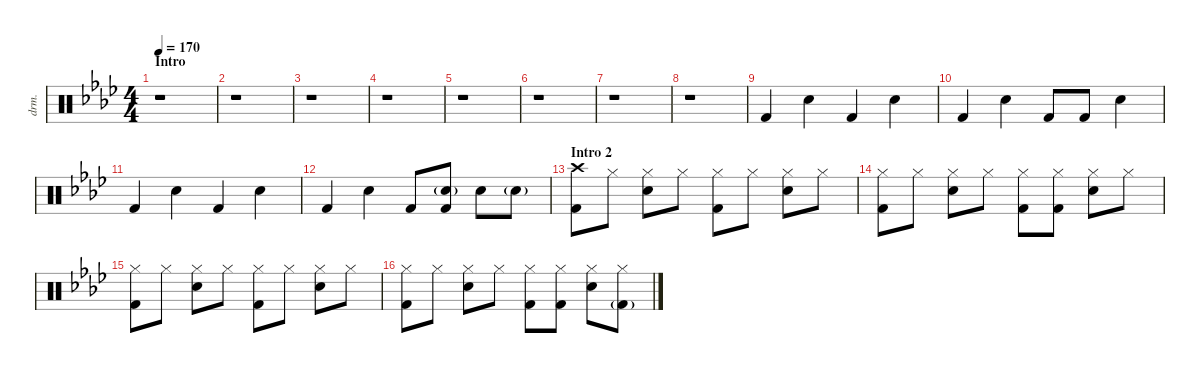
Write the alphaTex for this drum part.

\defaultSystemsLayout 4
\hideDynamics
\bracketExtendMode nobrackets
\otherSystemsTrackNameOrientation horizontal
\track ("Drumkit" "drm.") {instrument percussion}
\staff {score}
\articulation defaults
\ts (4 4)
\section ("" "Intro")
\tempo 170
\clef neutral
\ks fminor
r.1{dy mf beam Down} |
r.1{beam Down} |
r.1{beam Down} |
r.1{beam Down} |
r.1{beam Down} |
r.1{beam Down} |
r.1{beam Down} |
r.1{beam Down} |
"Kick (hit) 2"{acc forcenatural}.4{beam Up} "Snare (hit) 2"{acc forcenatural}.4{beam Down} "Kick (hit) 2"{acc forcenatural}.4{beam Up} "Snare (hit) 2"{acc forcenatural}.4{beam Down} |
"Kick (hit) 2"{acc forcenatural}.4{beam Up} "Snare (hit) 2"{acc forcenatural}.4{beam Down} "Kick (hit) 2"{acc forcenatural}.8{beam Up} "Kick (hit) 2"{acc forcenatural}.8{beam Up} "Snare (hit) 2"{acc forcenatural}.4{beam Down} |
"Kick (hit) 2"{acc forcenatural}.4{beam Up} "Snare (hit) 2"{acc forcenatural}.4{beam Down} "Kick (hit) 2"{acc forcenatural}.4{beam Up} "Snare (hit) 2"{acc forcenatural}.4{beam Down} |
"Kick (hit) 2"{acc forcenatural}.4{beam Up} "Snare (hit) 2"{acc forcenatural}.4{beam Down} "Kick (hit) 2"{acc forcenatural}.8{beam Up} ("Kick (hit) 2"{acc forcenatural} "Hand Clap (hit)"{g acc forcenatural}).8{beam Up} "Snare (hit) 2"{acc forcenatural}.8{beam Down} "Hand Clap (hit)"{g acc forcenatural}.8{beam Down} |
\section ("" "Intro 2")
("Kick (hit) 2"{acc forcenatural} "Crash high (hit)"{acc forcenatural}).8{beam Down} "Hi-Hat (closed)"{acc forcenatural}.8{beam Down} ("Hi-Hat (closed)"{acc forcenatural} "Snare (hit) 2"{acc forcenatural}).8{beam Down} "Hi-Hat (closed)"{acc forcenatural}.8{beam Down} ("Hi-Hat (closed)"{acc forcenatural} "Kick (hit) 2"{acc forcenatural}).8{beam Down} "Hi-Hat (closed)"{acc forcenatural}.8{beam Down} ("Hi-Hat (closed)"{acc forcenatural} "Snare (hit) 2"{acc forcenatural}).8{beam Down} "Hi-Hat (closed)"{acc forcenatural}.8{beam Down} |
("Hi-Hat (closed)"{acc forcenatural} "Kick (hit) 2"{acc forcenatural}).8{beam Down} "Hi-Hat (closed)"{acc forcenatural}.8{beam Down} ("Hi-Hat (closed)"{acc forcenatural} "Snare (hit) 2"{acc forcenatural}).8{beam Down} "Hi-Hat (closed)"{acc forcenatural}.8{beam Down} ("Hi-Hat (closed)"{acc forcenatural} "Kick (hit) 2"{acc forcenatural}).8{beam Down} ("Hi-Hat (closed)"{acc forcenatural} "Kick (hit) 2"{acc forcenatural}).8{beam Down} ("Hi-Hat (closed)"{acc forcenatural} "Snare (hit) 2"{acc forcenatural}).8{beam Down} "Hi-Hat (closed)"{acc forcenatural}.8{beam Down} |
("Hi-Hat (closed)"{acc forcenatural} "Kick (hit) 2"{acc forcenatural}).8{beam Down} "Hi-Hat (closed)"{acc forcenatural}.8{beam Down} ("Hi-Hat (closed)"{acc forcenatural} "Snare (hit) 2"{acc forcenatural}).8{beam Down} "Hi-Hat (closed)"{acc forcenatural}.8{beam Down} ("Hi-Hat (closed)"{acc forcenatural} "Kick (hit) 2"{acc forcenatural}).8{beam Down} "Hi-Hat (closed)"{acc forcenatural}.8{beam Down} ("Hi-Hat (closed)"{acc forcenatural} "Snare (hit) 2"{acc forcenatural}).8{beam Down} "Hi-Hat (closed)"{acc forcenatural}.8{beam Down} |
("Hi-Hat (closed)"{acc forcenatural} "Kick (hit) 2"{acc forcenatural}).8{beam Down} "Hi-Hat (closed)"{acc forcenatural}.8{beam Down} ("Hi-Hat (closed)"{acc forcenatural} "Snare (hit) 2"{acc forcenatural}).8{beam Down} "Hi-Hat (closed)"{acc forcenatural}.8{beam Down} ("Hi-Hat (closed)"{acc forcenatural} "Kick (hit) 2"{acc forcenatural}).8{beam Down} ("Hi-Hat (closed)"{acc forcenatural} "Kick (hit) 2"{acc forcenatural}).8{beam Down} ("Hi-Hat (closed)"{acc forcenatural} "Snare (hit) 2"{acc forcenatural}).8{beam Down} ("Hi-Hat (closed)"{acc forcenatural} "Kick (hit) 2"{g acc forcenatural}).8{beam Down}
